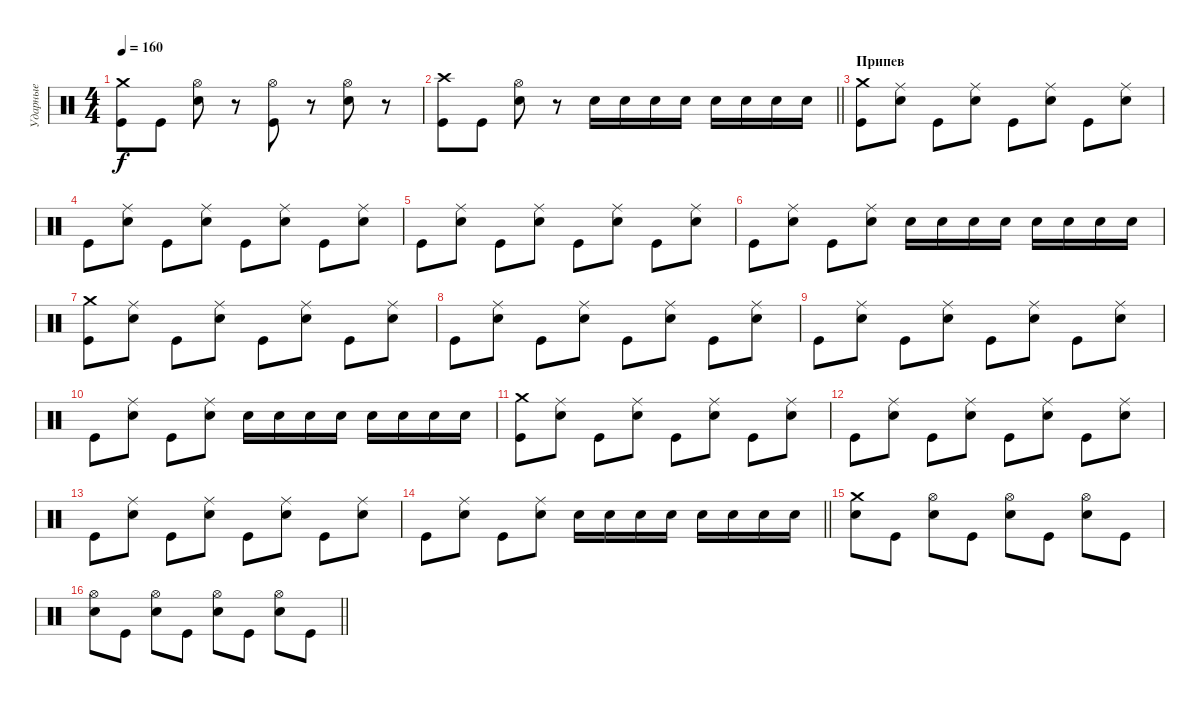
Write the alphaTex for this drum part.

\track ("Ударные" "Ударные") {instrument percussion}
\staff {score}
\articulation defaults
\ts (4 4)
\tempo 160
\clef neutral
\ks c
("Crash medium (hit)" "Kick (hit)").8{dy f} "Kick (hit)".8 ("Hi-Hat (open)" "Electric Snare (hit)").8 r.8 ("Hi-Hat (open)" "Kick (hit)").8 r.8 ("Hi-Hat (open)" "Electric Snare (hit)").8 r.8 |
\barLineRight lightlight
("Crash high (hit)" "Kick (hit)").8 "Kick (hit)".8 ("Hi-Hat (open)" "Electric Snare (hit)").8 r.8 "Electric Snare (hit)".16 "Electric Snare (hit)".16 "Electric Snare (hit)".16 "Electric Snare (hit)".16 "Electric Snare (hit)".16 "Electric Snare (hit)".16 "Electric Snare (hit)".16 "Electric Snare (hit)".16 |
\section ("" "Припев")
("Crash medium (hit)" "Kick (hit)").8 ("Ride (middle)" "Electric Snare (hit)").8 "Kick (hit)".8 ("Ride (middle)" "Electric Snare (hit)").8 "Kick (hit)".8 ("Ride (middle)" "Electric Snare (hit)").8 "Kick (hit)".8 ("Ride (middle)" "Electric Snare (hit)").8 |
"Kick (hit)".8 ("Ride (middle)" "Electric Snare (hit)").8 "Kick (hit)".8 ("Ride (middle)" "Electric Snare (hit)").8 "Kick (hit)".8 ("Ride (middle)" "Electric Snare (hit)").8 "Kick (hit)".8 ("Ride (middle)" "Electric Snare (hit)").8 |
"Kick (hit)".8 ("Ride (middle)" "Electric Snare (hit)").8 "Kick (hit)".8 ("Ride (middle)" "Electric Snare (hit)").8 "Kick (hit)".8 ("Ride (middle)" "Electric Snare (hit)").8 "Kick (hit)".8 ("Ride (middle)" "Electric Snare (hit)").8 |
"Kick (hit)".8 ("Ride (middle)" "Electric Snare (hit)").8 "Kick (hit)".8 ("Ride (middle)" "Electric Snare (hit)").8 "Electric Snare (hit)".16 "Electric Snare (hit)".16 "Electric Snare (hit)".16 "Electric Snare (hit)".16 "Electric Snare (hit)".16 "Electric Snare (hit)".16 "Electric Snare (hit)".16 "Electric Snare (hit)".16 |
("Crash medium (hit)" "Kick (hit)").8 ("Ride (middle)" "Electric Snare (hit)").8 "Kick (hit)".8 ("Ride (middle)" "Electric Snare (hit)").8 "Kick (hit)".8 ("Ride (middle)" "Electric Snare (hit)").8 "Kick (hit)".8 ("Ride (middle)" "Electric Snare (hit)").8 |
"Kick (hit)".8 ("Ride (middle)" "Electric Snare (hit)").8 "Kick (hit)".8 ("Ride (middle)" "Electric Snare (hit)").8 "Kick (hit)".8 ("Ride (middle)" "Electric Snare (hit)").8 "Kick (hit)".8 ("Ride (middle)" "Electric Snare (hit)").8 |
"Kick (hit)".8 ("Ride (middle)" "Electric Snare (hit)").8 "Kick (hit)".8 ("Ride (middle)" "Electric Snare (hit)").8 "Kick (hit)".8 ("Ride (middle)" "Electric Snare (hit)").8 "Kick (hit)".8 ("Ride (middle)" "Electric Snare (hit)").8 |
"Kick (hit)".8 ("Ride (middle)" "Electric Snare (hit)").8 "Kick (hit)".8 ("Ride (middle)" "Electric Snare (hit)").8 "Electric Snare (hit)".16 "Electric Snare (hit)".16 "Electric Snare (hit)".16 "Electric Snare (hit)".16 "Electric Snare (hit)".16 "Electric Snare (hit)".16 "Electric Snare (hit)".16 "Electric Snare (hit)".16 |
("Crash medium (hit)" "Kick (hit)").8 ("Ride (middle)" "Electric Snare (hit)").8 "Kick (hit)".8 ("Ride (middle)" "Electric Snare (hit)").8 "Kick (hit)".8 ("Ride (middle)" "Electric Snare (hit)").8 "Kick (hit)".8 ("Ride (middle)" "Electric Snare (hit)").8 |
"Kick (hit)".8 ("Ride (middle)" "Electric Snare (hit)").8 "Kick (hit)".8 ("Ride (middle)" "Electric Snare (hit)").8 "Kick (hit)".8 ("Ride (middle)" "Electric Snare (hit)").8 "Kick (hit)".8 ("Ride (middle)" "Electric Snare (hit)").8 |
"Kick (hit)".8 ("Ride (middle)" "Electric Snare (hit)").8 "Kick (hit)".8 ("Ride (middle)" "Electric Snare (hit)").8 "Kick (hit)".8 ("Ride (middle)" "Electric Snare (hit)").8 "Kick (hit)".8 ("Ride (middle)" "Electric Snare (hit)").8 |
\barLineRight lightlight "Kick (hit)".8
("Ride (middle)" "Electric Snare (hit)").8 "Kick (hit)".8 ("Ride (middle)" "Electric Snare (hit)").8 "Electric Snare (hit)".16 "Electric Snare (hit)".16 "Electric Snare (hit)".16 "Electric Snare (hit)".16 "Electric Snare (hit)".16 "Electric Snare (hit)".16 "Electric Snare (hit)".16 "Electric Snare (hit)".16 |
\section ("" " ")
("Crash medium (hit)" "Electric Snare (hit)").8 "Kick (hit)".8 ("Hi-Hat (open)" "Electric Snare (hit)").8 "Kick (hit)".8 ("Hi-Hat (open)" "Electric Snare (hit)").8 "Kick (hit)".8 ("Hi-Hat (open)" "Electric Snare (hit)").8 "Kick (hit)".8 |
\barLineRight lightlight
("Hi-Hat (open)" "Electric Snare (hit)").8 "Kick (hit)".8 ("Hi-Hat (open)" "Electric Snare (hit)").8 "Kick (hit)".8 ("Hi-Hat (open)" "Electric Snare (hit)").8 "Kick (hit)".8 ("Hi-Hat (open)" "Electric Snare (hit)").8 "Kick (hit)".8
